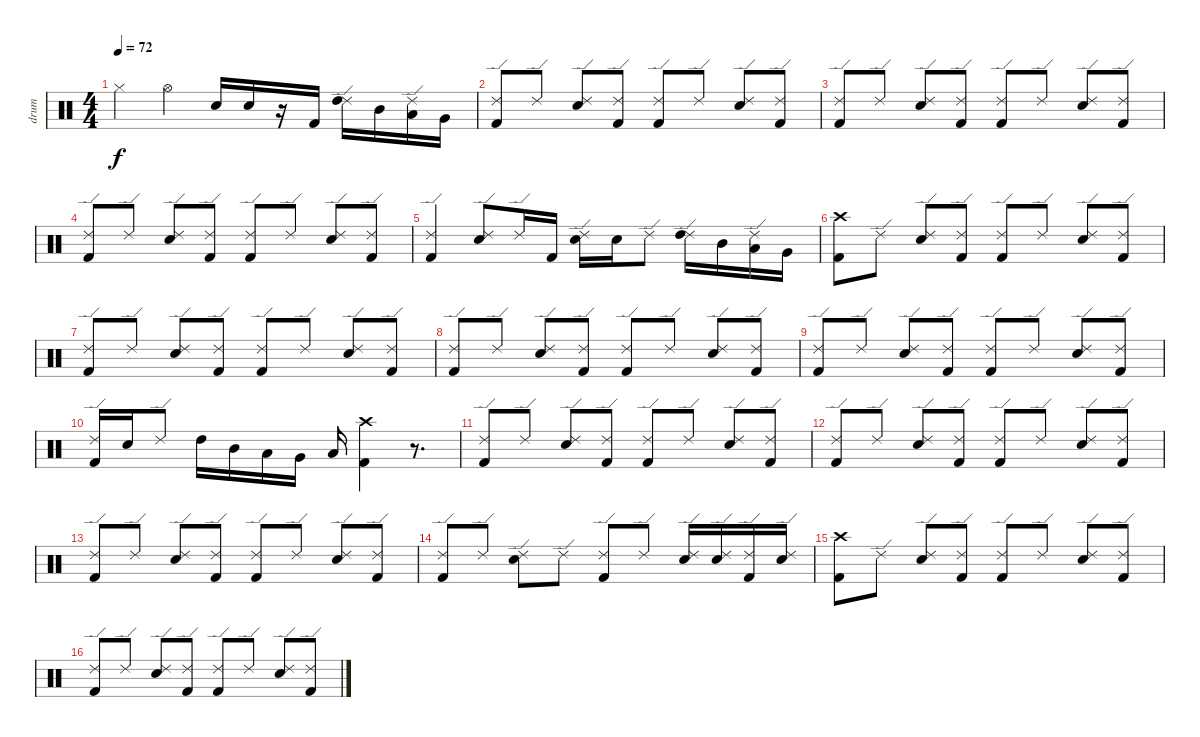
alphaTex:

\track ("drum" "drum") {instrument percussion}
\staff {score}
\articulation defaults
\ts (4 4)
\tempo 72
\clef neutral
\ks c "Hi-Hat (closed)".4{dy f} "Hi-Hat (open)".4 "Snare (hit) 2".16 "Snare (hit) 2".16
r.16 "Kick (hit) 2".16 ("Ride (edge) 2" "High Tom (hit)").16 "Mid Tom (hit)".16 ("Ride (edge) 2" "Low Tom (hit)").16 "Very Low Tom (hit)".16 |
("Ride (edge) 2" "Kick (hit) 2").8 "Ride (edge) 2".8 ("Ride (edge) 2" "Snare (hit) 2").8 ("Ride (edge) 2" "Kick (hit) 2").8 ("Ride (edge) 2" "Kick (hit) 2").8 "Ride (edge) 2".8 ("Ride (edge) 2" "Snare (hit) 2").8 ("Ride (edge) 2" "Kick (hit) 2").8 |
("Ride (edge) 2" "Kick (hit) 2").8 "Ride (edge) 2".8 ("Ride (edge) 2" "Snare (hit) 2").8 ("Ride (edge) 2" "Kick (hit) 2").8 ("Ride (edge) 2" "Kick (hit) 2").8 "Ride (edge) 2".8 ("Ride (edge) 2" "Snare (hit) 2").8 ("Ride (edge) 2" "Kick (hit) 2").8 |
("Ride (edge) 2" "Kick (hit) 2").8 "Ride (edge) 2".8 ("Ride (edge) 2" "Snare (hit) 2").8 ("Ride (edge) 2" "Kick (hit) 2").8 ("Ride (edge) 2" "Kick (hit) 2").8 "Ride (edge) 2".8 ("Ride (edge) 2" "Snare (hit) 2").8 ("Ride (edge) 2" "Kick (hit) 2").8 |
("Ride (edge) 2" "Kick (hit) 2").4 ("Ride (edge) 2" "Snare (hit) 2").8 "Ride (edge) 2".16 "Kick (hit) 2".16 ("Ride (edge) 2" "Snare (hit) 2").16 "Snare (hit) 2".16 "Ride (edge) 2".8 ("Ride (edge) 2" "High Tom (hit)").16 "Mid Tom (hit)".16 ("Ride (edge) 2" "Low Tom (hit)").16 "Very Low Tom (hit)".16 |
("Crash high (hit)" "Kick (hit) 2").8 "Ride (edge) 2".8 ("Ride (edge) 2" "Snare (hit) 2").8 ("Ride (edge) 2" "Kick (hit) 2").8 ("Ride (edge) 2" "Kick (hit) 2").8 "Ride (edge) 2".8 ("Ride (edge) 2" "Snare (hit) 2").8 ("Ride (edge) 2" "Kick (hit) 2").8 |
("Ride (edge) 2" "Kick (hit) 2").8 "Ride (edge) 2".8 ("Ride (edge) 2" "Snare (hit) 2").8 ("Ride (edge) 2" "Kick (hit) 2").8 ("Ride (edge) 2" "Kick (hit) 2").8 "Ride (edge) 2".8 ("Ride (edge) 2" "Snare (hit) 2").8 ("Ride (edge) 2" "Kick (hit) 2").8 |
("Ride (edge) 2" "Kick (hit) 2").8 "Ride (edge) 2".8 ("Ride (edge) 2" "Snare (hit) 2").8 ("Ride (edge) 2" "Kick (hit) 2").8 ("Ride (edge) 2" "Kick (hit) 2").8 "Ride (edge) 2".8 ("Ride (edge) 2" "Snare (hit) 2").8 ("Ride (edge) 2" "Kick (hit) 2").8 |
("Ride (edge) 2" "Kick (hit) 2").8 "Ride (edge) 2".8 ("Ride (edge) 2" "Snare (hit) 2").8 ("Ride (edge) 2" "Kick (hit) 2").8 ("Ride (edge) 2" "Kick (hit) 2").8 "Ride (edge) 2".8 ("Ride (edge) 2" "Snare (hit) 2").8 ("Ride (edge) 2" "Kick (hit) 2").8 |
("Ride (edge) 2" "Kick (hit) 2").16 "Snare (hit) 2".16 "Ride (edge) 2".8 "High Tom (hit)".16 "Mid Tom (hit)".16 "Low Tom (hit)".16 "Very Low Tom (hit)".16 "Low Floor Tom (hit)".16 ("Crash high (hit)" "Kick (hit) 2").4 r.8{d} |
("Ride (edge) 2" "Kick (hit) 2").8 "Ride (edge) 2".8 ("Ride (edge) 2" "Snare (hit) 2").8 ("Ride (edge) 2" "Kick (hit) 2").8 ("Ride (edge) 2" "Kick (hit) 2").8 "Ride (edge) 2".8 ("Ride (edge) 2" "Snare (hit) 2").8 ("Ride (edge) 2" "Kick (hit) 2").8 |
("Ride (edge) 2" "Kick (hit) 2").8 "Ride (edge) 2".8 ("Ride (edge) 2" "Snare (hit) 2").8 ("Ride (edge) 2" "Kick (hit) 2").8 ("Ride (edge) 2" "Kick (hit) 2").8 "Ride (edge) 2".8 ("Ride (edge) 2" "Snare (hit) 2").8 ("Ride (edge) 2" "Kick (hit) 2").8 |
("Ride (edge) 2" "Kick (hit) 2").8 "Ride (edge) 2".8 ("Ride (edge) 2" "Snare (hit) 2").8 ("Ride (edge) 2" "Kick (hit) 2").8 ("Ride (edge) 2" "Kick (hit) 2").8 "Ride (edge) 2".8 ("Ride (edge) 2" "Snare (hit) 2").8 ("Ride (edge) 2" "Kick (hit) 2").8 |
("Ride (edge) 2" "Kick (hit) 2").8 "Ride (edge) 2".8 ("Ride (edge) 2" "Snare (hit) 2").8 "Ride (edge) 2".8 ("Ride (edge) 2" "Kick (hit) 2").8 "Ride (edge) 2".8 ("Ride (edge) 2" "Snare (hit) 2").16 ("Ride (edge) 2" "Snare (hit) 2").16 ("Ride (edge) 2" "Kick (hit) 2").16 ("Ride (edge) 2" "Snare (hit) 2").16 |
("Crash high (hit)" "Kick (hit) 2").8 "Ride (edge) 2".8 ("Ride (edge) 2" "Snare (hit) 2").8 ("Ride (edge) 2" "Kick (hit) 2").8 ("Ride (edge) 2" "Kick (hit) 2").8 "Ride (edge) 2".8 ("Ride (edge) 2" "Snare (hit) 2").8 ("Ride (edge) 2" "Kick (hit) 2").8 |
("Ride (edge) 2" "Kick (hit) 2").8 "Ride (edge) 2".8 ("Ride (edge) 2" "Snare (hit) 2").8 ("Ride (edge) 2" "Kick (hit) 2").8 ("Ride (edge) 2" "Kick (hit) 2").8 "Ride (edge) 2".8 ("Ride (edge) 2" "Snare (hit) 2").8 ("Ride (edge) 2" "Kick (hit) 2").8
